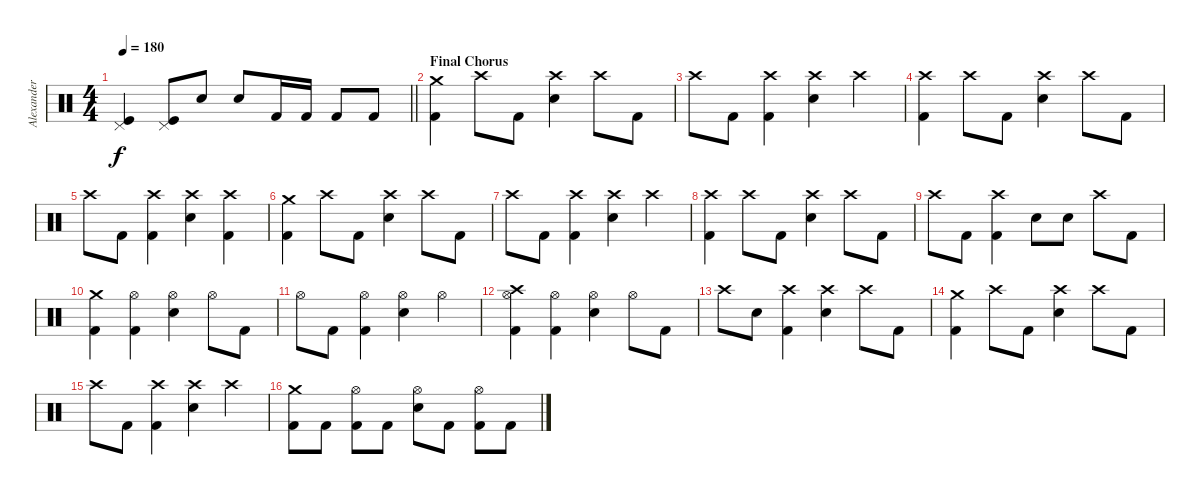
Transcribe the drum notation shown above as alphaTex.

\track ("Alexander Sveningsson" "Alexander ") {instrument percussion}
\staff {score}
\articulation defaults
\ts (4 4)
\tempo 180
\clef neutral
\barLineRight lightlight
\ks c
("Pedal Hi-Hat (hit)" "Kick (hit)").4{dy f} ("Pedal Hi-Hat (hit)" "Kick (hit)").8 "Electric Snare (hit)".8 "Electric Snare (hit)".8 "Kick (hit) 2".16 "Kick (hit) 2".16 "Kick (hit) 2".8 "Kick (hit) 2".8 |
\section ("" "Final Chorus")
("Crash medium (hit)" "Kick (hit) 2").4 "Crash high (hit)".8 "Kick (hit) 2".8 ("Crash high (hit)" "Electric Snare (hit)").4 "Crash high (hit)".8 "Kick (hit) 2".8 |
"Crash high (hit)".8 "Kick (hit) 2".8 ("Crash high (hit)" "Kick (hit) 2").4 ("Crash high (hit)" "Electric Snare (hit)").4 "Crash high (hit)".4 |
("Crash high (hit)" "Kick (hit) 2").4 "Crash high (hit)".8 "Kick (hit) 2".8 ("Crash high (hit)" "Electric Snare (hit)").4 "Crash high (hit)".8 "Kick (hit) 2".8 |
"Crash high (hit)".8 "Kick (hit) 2".8 ("Crash high (hit)" "Kick (hit) 2").4 ("Crash high (hit)" "Electric Snare (hit)").4 ("Crash high (hit)" "Kick (hit) 2").4 |
("Crash medium (hit)" "Kick (hit) 2").4 "Crash high (hit)".8 "Kick (hit) 2".8 ("Crash high (hit)" "Electric Snare (hit)").4 "Crash high (hit)".8 "Kick (hit) 2".8 |
"Crash high (hit)".8 "Kick (hit) 2".8 ("Crash high (hit)" "Kick (hit) 2").4 ("Crash high (hit)" "Electric Snare (hit)").4 "Crash high (hit)".4 |
("Crash high (hit)" "Kick (hit) 2").4 "Crash high (hit)".8 "Kick (hit) 2".8 ("Crash high (hit)" "Electric Snare (hit)").4 "Crash high (hit)".8 "Kick (hit) 2".8 |
"Crash high (hit)".8 "Kick (hit) 2".8 ("Crash high (hit)" "Kick (hit) 2").4 "Electric Snare (hit)".8 "Electric Snare (hit)".8 "Crash high (hit)".8 "Kick (hit) 2".8 |
("Crash medium (hit)" "Kick (hit) 2").4 ("Hi-Hat (open)" "Kick (hit) 2").4 ("Hi-Hat (open)" "Electric Snare (hit)").4 "Hi-Hat (open)".8 "Kick (hit) 2".8 |
"Hi-Hat (open)".8 "Kick (hit) 2".8 ("Hi-Hat (open)" "Kick (hit) 2").4 ("Hi-Hat (open)" "Electric Snare (hit)").4 "Hi-Hat (open)".4 |
("Crash high (hit)" "Hi-Hat (open)" "Kick (hit) 2").4 ("Hi-Hat (open)" "Kick (hit) 2").4 ("Hi-Hat (open)" "Electric Snare (hit)").4 "Hi-Hat (open)".8 "Kick (hit) 2".8 |
"Crash high (hit)".8 "Electric Snare (hit)".8 ("Crash high (hit)" "Kick (hit) 2").4 ("Crash high (hit)" "Electric Snare (hit)").4 "Crash high (hit)".8 "Kick (hit) 2".8 |
("Crash medium (hit)" "Kick (hit) 2").4 "Crash high (hit)".8 "Kick (hit) 2".8 ("Crash high (hit)" "Electric Snare (hit)").4 "Crash high (hit)".8 "Kick (hit) 2".8 |
"Crash high (hit)".8 "Kick (hit) 2".8 ("Crash high (hit)" "Kick (hit) 2").4 ("Crash high (hit)" "Electric Snare (hit)").4 "Crash high (hit)".4 |
("Crash medium (hit)" "Kick (hit) 2").8 "Kick (hit) 2".8 ("Hi-Hat (open)" "Kick (hit) 2").8 "Kick (hit) 2".8 ("Hi-Hat (open)" "Electric Snare (hit)").8 "Kick (hit) 2".8 ("Hi-Hat (open)" "Kick (hit) 2").8 "Kick (hit) 2".8
